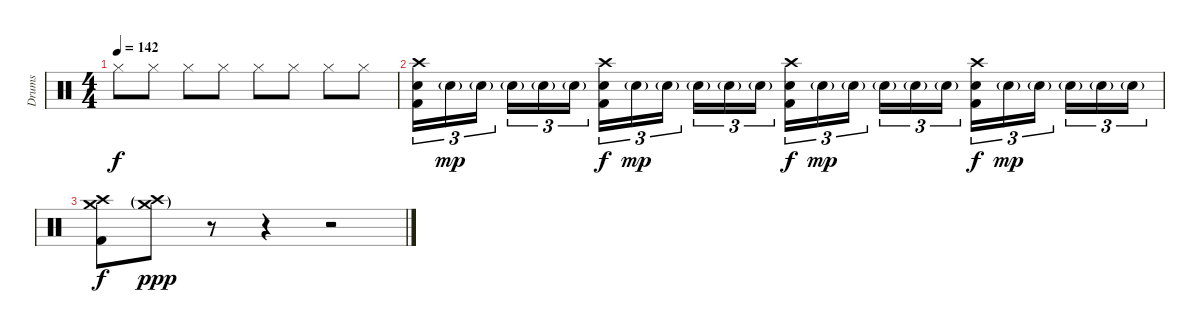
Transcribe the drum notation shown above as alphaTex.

\track ("Drums" "Drums") {instrument percussion}
\staff {score}
\articulation defaults
\ts (4 4)
\tempo 142
\clef neutral
\ks c "Hi-Hat (closed)".8{dy f} "Hi-Hat (closed)".8 "Hi-Hat (closed)".8 "Hi-Hat (closed)".8 "Hi-Hat (closed)".8 "Hi-Hat (closed)".8 "Hi-Hat (closed)".8 "Hi-Hat (closed)".8
|
("Crash high (hit)" "Electric Snare (hit)" "Kick (hit) 2").16{tu (3 2) balance 8} "Electric Snare (hit)"{g}.16{tu (3 2) dy mp} "Electric Snare (hit)"{g}.16{tu (3 2) beam splitsecondary} "Electric Snare (hit)"{g}.16{tu (3 2)} "Electric Snare (hit)"{g}.16{tu (3 2)} "Electric Snare (hit)"{g}.16{tu (3 2)} ("Crash high (hit)" "Electric Snare (hit)" "Kick (hit) 2").16{tu (3 2) dy f} "Electric Snare (hit)"{g}.16{tu (3 2) dy mp} "Electric Snare (hit)"{g}.16{tu (3 2) beam splitsecondary} "Electric Snare (hit)"{g}.16{tu (3 2)} "Electric Snare (hit)"{g}.16{tu (3 2)} "Electric Snare (hit)"{g}.16{tu (3 2)} ("Crash high (hit)" "Electric Snare (hit)" "Kick (hit) 2").16{tu (3 2) dy f} "Electric Snare (hit)"{g}.16{tu (3 2) dy mp} "Electric Snare (hit)"{g}.16{tu (3 2) beam splitsecondary} "Electric Snare (hit)"{g}.16{tu (3 2)} "Electric Snare (hit)"{g}.16{tu (3 2)} "Electric Snare (hit)"{g}.16{tu (3 2)} ("Crash high (hit)" "Electric Snare (hit)" "Kick (hit) 2").16{tu (3 2) dy f} "Electric Snare (hit)"{g}.16{tu (3 2) dy mp} "Electric Snare (hit)"{g}.16{tu (3 2) beam splitsecondary} "Electric Snare (hit)"{g}.16{tu (3 2)} "Electric Snare (hit)"{g}.16{tu (3 2)} "Electric Snare (hit)"{g}.16{tu (3 2)} |
("Crash high (hit)" "Crash medium (hit)" "Kick (hit) 2").8{dy f} ("Crash high (hit)"{g} "Crash medium (hit)"{g}).8{dy ppp} r.8 r.4 r.2
